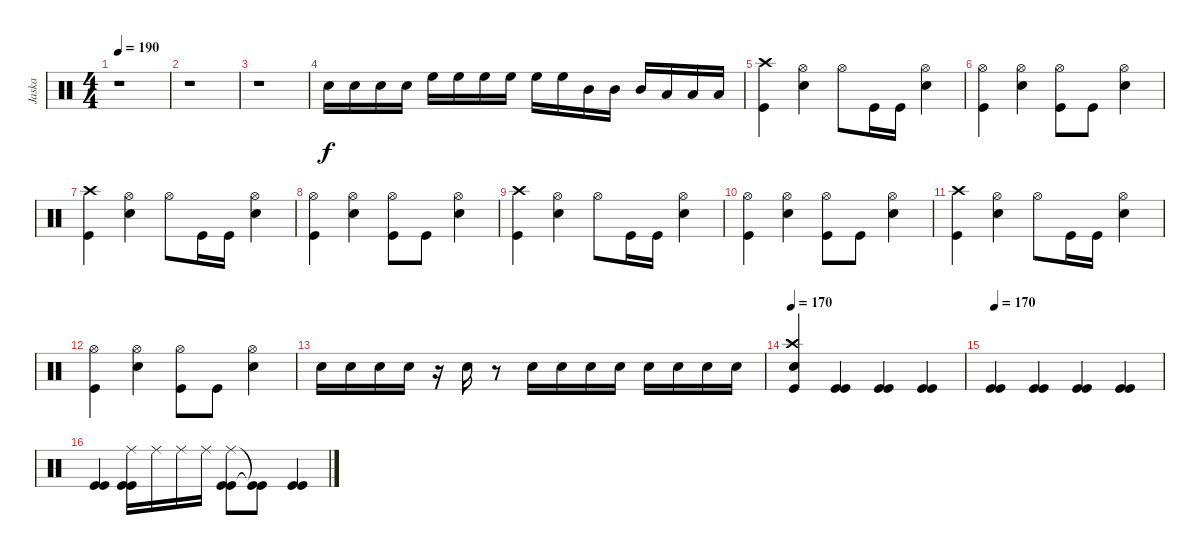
\track ("Jaska" "Jaska") {instrument percussion}
\staff {score}
\articulation defaults
\ts (4 4)
\tempo 190
\clef neutral
\ks c
r.1{dy f} |
r.1 |
r.1 |
"Snare (hit) 2".16 "Snare (hit) 2".16 "Snare (hit) 2".16 "Snare (hit) 2".16 "High Floor Tom (hit)".16 "High Floor Tom (hit)".16 "High Floor Tom (hit)".16 "High Floor Tom (hit)".16 "High Floor Tom (hit)".16 "High Floor Tom (hit)".16 "Mid Tom (hit)".16 "Mid Tom (hit)".16 "Mid Tom (hit)".16 "Low Tom (hit)".16 "Low Tom (hit)".16 "Low Tom (hit)".16 |
("Crash high (hit)" "Kick (hit)").4 ("Hi-Hat (open)" "Snare (hit) 2").4 "Hi-Hat (open)".8 "Kick (hit)".16 "Kick (hit)".16 ("Hi-Hat (open)" "Snare (hit) 2").4 |
("Hi-Hat (open)" "Kick (hit)").4 ("Hi-Hat (open)" "Snare (hit) 2").4 ("Hi-Hat (open)" "Kick (hit)").8 "Kick (hit)".8 ("Hi-Hat (open)" "Snare (hit) 2").4 |
("Crash high (hit)" "Kick (hit)").4 ("Hi-Hat (open)" "Snare (hit) 2").4 "Hi-Hat (open)".8 "Kick (hit)".16 "Kick (hit)".16 ("Hi-Hat (open)" "Snare (hit) 2").4 |
("Hi-Hat (open)" "Kick (hit)").4 ("Hi-Hat (open)" "Snare (hit) 2").4 ("Hi-Hat (open)" "Kick (hit)").8 "Kick (hit)".8 ("Hi-Hat (open)" "Snare (hit) 2").4 |
("Crash high (hit)" "Kick (hit)").4 ("Hi-Hat (open)" "Snare (hit) 2").4 "Hi-Hat (open)".8 "Kick (hit)".16 "Kick (hit)".16 ("Hi-Hat (open)" "Snare (hit) 2").4 |
("Hi-Hat (open)" "Kick (hit)").4 ("Hi-Hat (open)" "Snare (hit) 2").4 ("Hi-Hat (open)" "Kick (hit)").8 "Kick (hit)".8 ("Hi-Hat (open)" "Snare (hit) 2").4 |
("Crash high (hit)" "Kick (hit)").4 ("Hi-Hat (open)" "Snare (hit) 2").4 "Hi-Hat (open)".8 "Kick (hit)".16 "Kick (hit)".16 ("Hi-Hat (open)" "Snare (hit) 2").4 |
("Hi-Hat (open)" "Kick (hit)").4 ("Hi-Hat (open)" "Snare (hit) 2").4 ("Hi-Hat (open)" "Kick (hit)").8 "Kick (hit)".8 ("Hi-Hat (open)" "Snare (hit) 2").4 |
"Snare (hit) 2".16 "Snare (hit) 2".16 "Snare (hit) 2".16 "Snare (hit) 2".16 r.16 "Snare (hit) 2".16 r.8 "Snare (hit) 2".16 "Snare (hit) 2".16 "Snare (hit) 2".16 "Snare (hit) 2".16 "Snare (hit) 2".16 "Snare (hit) 2".16 "Snare (hit) 2".16 "Snare (hit) 2".16 |
\tempo 170
("Crash high (hit)" "Snare (hit) 2" "Kick (hit)").4 ("Kick (hit)" "Kick (hit)").4 ("Kick (hit)" "Kick (hit)").4 ("Kick (hit)" "Kick (hit)").4 |
\tempo 170
("Kick (hit)" "Kick (hit)").4 ("Kick (hit)" "Kick (hit)").4 ("Kick (hit)" "Kick (hit)").4 ("Kick (hit)" "Kick (hit)").4 |
("Kick (hit)" "Kick (hit)").4 ("Ride (middle)" "Kick (hit)" "Kick (hit)").16 "Ride (middle)".16 "Ride (middle)".16 "Ride (middle)".16 ("Ride (middle)" "Kick (hit)" "Kick (hit)").8 ("Kick (hit)"{t} "Kick (hit)"{t}).8 ("Kick (hit)" "Kick (hit)").4
